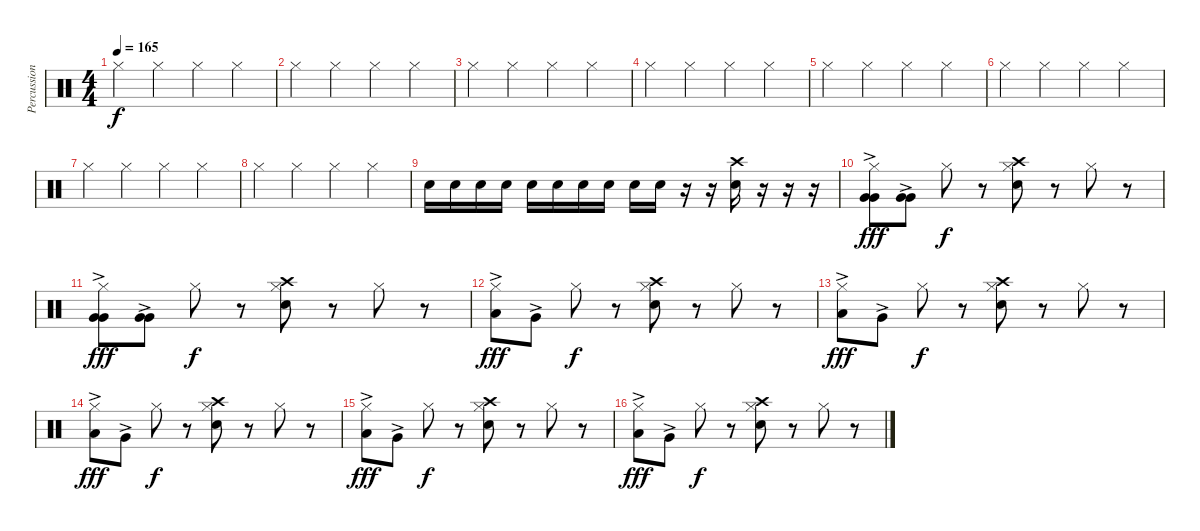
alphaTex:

\track ("Percussions" "Percussion") {instrument percussion}
\staff {score}
\articulation defaults
\ts (4 4)
\tempo 165
\clef neutral
\ks c "Hi-Hat (closed)".4{dy f} "Hi-Hat (closed)".4 "Hi-Hat (closed)".4 "Hi-Hat (closed)".4
|
"Hi-Hat (closed)".4 "Hi-Hat (closed)".4 "Hi-Hat (closed)".4 "Hi-Hat (closed)".4 |
"Hi-Hat (closed)".4 "Hi-Hat (closed)".4 "Hi-Hat (closed)".4 "Hi-Hat (closed)".4 |
"Hi-Hat (closed)".4 "Hi-Hat (closed)".4 "Hi-Hat (closed)".4 "Hi-Hat (closed)".4 |
"Hi-Hat (closed)".4 "Hi-Hat (closed)".4 "Hi-Hat (closed)".4 "Hi-Hat (closed)".4 |
"Hi-Hat (closed)".4 "Hi-Hat (closed)".4 "Hi-Hat (closed)".4 "Hi-Hat (closed)".4 |
"Hi-Hat (closed)".4 "Hi-Hat (closed)".4 "Hi-Hat (closed)".4 "Hi-Hat (closed)".4 |
"Hi-Hat (closed)".4 "Hi-Hat (closed)".4 "Hi-Hat (closed)".4 "Hi-Hat (closed)".4 |
"Electric Snare (hit)".16 "Electric Snare (hit)".16 "Electric Snare (hit)".16 "Electric Snare (hit)".16 "Electric Snare (hit)".16 "Electric Snare (hit)".16 "Electric Snare (hit)".16 "Electric Snare (hit)".16 "Electric Snare (hit)".16 "Electric Snare (hit)".16 r.16 r.16 ("Crash high (hit)" "Electric Snare (hit)").16 r.16 r.16 r.16 |
("Very Low Tom (hit)"{ac} "Very Low Tom (hit)" "Hi-Hat (closed)").8{dy fff} ("Very Low Tom (hit)"{ac} "Very Low Tom (hit)").8 "Hi-Hat (closed)".8{dy f} r.8 ("Crash high (hit)" "Electric Snare (hit)" "Hi-Hat (closed)").8 r.8 "Hi-Hat (closed)".8 r.8 |
("Very Low Tom (hit)"{ac} "Very Low Tom (hit)" "Hi-Hat (closed)").8{dy fff} ("Very Low Tom (hit)"{ac} "Very Low Tom (hit)").8 "Hi-Hat (closed)".8{dy f} r.8 ("Electric Snare (hit)" "Crash high (hit)" "Hi-Hat (closed)").8 r.8 "Hi-Hat (closed)".8 r.8 |
("Low Tom (hit)"{ac} "Hi-Hat (closed)").8{dy fff} "Very Low Tom (hit)"{ac}.8 "Hi-Hat (closed)".8{dy f} r.8 ("Crash high (hit)" "Electric Snare (hit)" "Hi-Hat (closed)").8 r.8 "Hi-Hat (closed)".8 r.8 |
("Low Tom (hit)"{ac} "Hi-Hat (closed)").8{dy fff} "Very Low Tom (hit)"{ac}.8 "Hi-Hat (closed)".8{dy f} r.8 ("Electric Snare (hit)" "Crash high (hit)" "Hi-Hat (closed)").8 r.8 "Hi-Hat (closed)".8 r.8 |
("Low Tom (hit)"{ac} "Hi-Hat (closed)").8{dy fff} "Very Low Tom (hit)"{ac}.8 "Hi-Hat (closed)".8{dy f} r.8 ("Crash high (hit)" "Electric Snare (hit)" "Hi-Hat (closed)").8 r.8 "Hi-Hat (closed)".8 r.8 |
("Low Tom (hit)"{ac} "Hi-Hat (closed)").8{dy fff} "Very Low Tom (hit)"{ac}.8 "Hi-Hat (closed)".8{dy f} r.8 ("Electric Snare (hit)" "Crash high (hit)" "Hi-Hat (closed)").8 r.8 "Hi-Hat (closed)".8 r.8 |
("Low Tom (hit)"{ac} "Hi-Hat (closed)").8{dy fff} "Very Low Tom (hit)"{ac}.8 "Hi-Hat (closed)".8{dy f} r.8 ("Crash high (hit)" "Electric Snare (hit)" "Hi-Hat (closed)").8 r.8 "Hi-Hat (closed)".8 r.8
